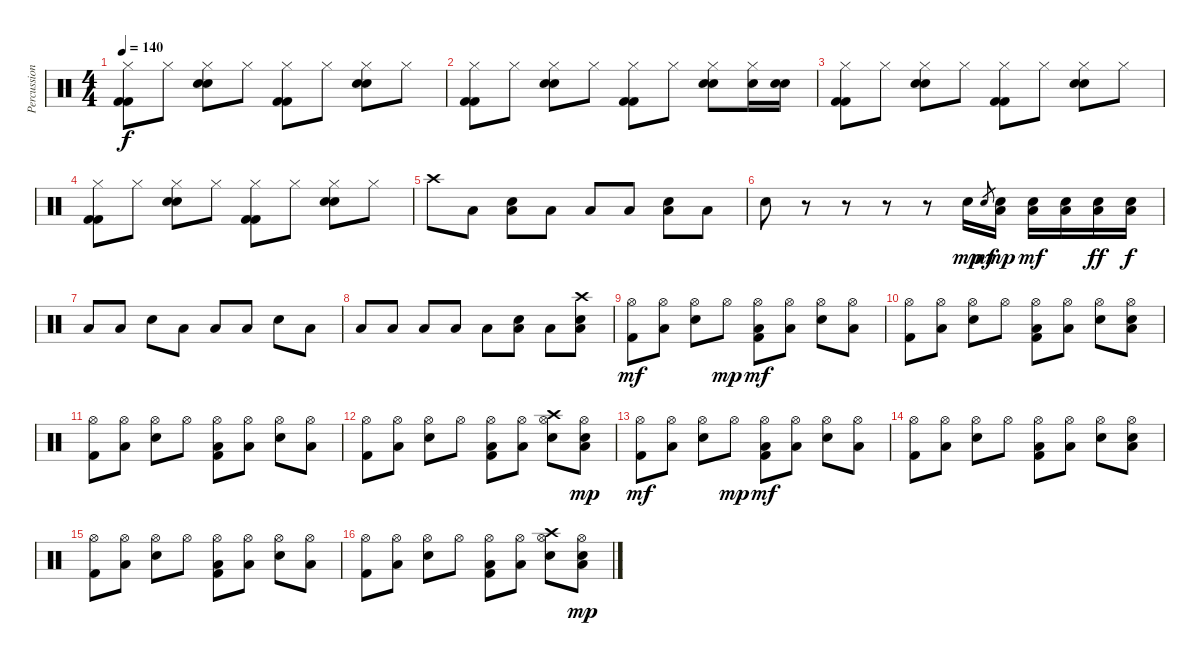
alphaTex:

\track ("Percussion" "Percussion") {instrument percussion}
\staff {score}
\articulation defaults
\ts (4 4)
\tempo 140
\clef neutral
\ks c
("Hi-Hat (closed)" "Kick (hit) 2" "Kick (hit) 2").8{dy f} "Hi-Hat (closed)".8 ("Hi-Hat (closed)" "Electric Snare (hit)" "Electric Snare (hit)").8 "Hi-Hat (closed)".8 ("Hi-Hat (closed)" "Kick (hit) 2" "Kick (hit) 2").8 "Hi-Hat (closed)".8 ("Hi-Hat (closed)" "Electric Snare (hit)" "Electric Snare (hit)").8 "Hi-Hat (closed)".8 |
("Hi-Hat (closed)" "Kick (hit) 2" "Kick (hit) 2").8 "Hi-Hat (closed)".8 ("Hi-Hat (closed)" "Electric Snare (hit)" "Electric Snare (hit)").8 "Hi-Hat (closed)".8 ("Hi-Hat (closed)" "Kick (hit) 2" "Kick (hit) 2").8 "Hi-Hat (closed)".8 ("Hi-Hat (closed)" "Electric Snare (hit)" "Electric Snare (hit)").8 ("Hi-Hat (closed)" "Electric Snare (hit)").16 ("Electric Snare (hit)" "Electric Snare (hit)").16 |
("Hi-Hat (closed)" "Kick (hit) 2" "Kick (hit) 2").8 "Hi-Hat (closed)".8 ("Hi-Hat (closed)" "Electric Snare (hit)" "Electric Snare (hit)").8 "Hi-Hat (closed)".8 ("Hi-Hat (closed)" "Kick (hit) 2" "Kick (hit) 2").8 "Hi-Hat (closed)".8 ("Hi-Hat (closed)" "Electric Snare (hit)" "Electric Snare (hit)").8 "Hi-Hat (closed)".8 |
("Hi-Hat (closed)" "Kick (hit) 2" "Kick (hit) 2").8 "Hi-Hat (closed)".8 ("Hi-Hat (closed)" "Electric Snare (hit)" "Electric Snare (hit)").8 "Hi-Hat (closed)".8 ("Hi-Hat (closed)" "Kick (hit) 2" "Kick (hit) 2").8 "Hi-Hat (closed)".8 ("Hi-Hat (closed)" "Electric Snare (hit)" "Electric Snare (hit)").8 "Hi-Hat (closed)".8 |
"Crash high (hit)".8 "Low Tom (hit)".8 ("Low Tom (hit)" "Electric Snare (hit)").8 "Low Tom (hit)".8 "Low Tom (hit)".8 "Low Tom (hit)".8 ("Low Tom (hit)" "Electric Snare (hit)").8 "Low Tom (hit)".8 |
"Electric Snare (hit)".8 r.8 r.8 r.8 r.8 "Electric Snare (hit)".16{dy mp} "Electric Snare (hit)".8{gr dy mf} ("Low Tom (hit)" "Electric Snare (hit)").16{dy mp} ("Electric Snare (hit)" "Low Tom (hit)").16{dy mf} ("Low Tom (hit)" "Electric Snare (hit)").16 ("Low Tom (hit)" "Electric Snare (hit)").16{dy ff} ("Low Tom (hit)" "Electric Snare (hit)").16{dy f} |
"Low Tom (hit)".8 "Low Tom (hit)".8 "Electric Snare (hit)".8 "Low Tom (hit)".8 "Low Tom (hit)".8 "Low Tom (hit)".8 "Electric Snare (hit)".8 "Low Tom (hit)".8 |
"Low Tom (hit)".8 "Low Tom (hit)".8 "Low Tom (hit)".8 "Low Tom (hit)".8 "Low Tom (hit)".8 ("Electric Snare (hit)" "Low Tom (hit)").8 "Low Tom (hit)".8 ("Crash high (hit)" "Electric Snare (hit)" "Low Tom (hit)").8 |
("Hi-Hat (open)" "Kick (hit) 2").8{dy mf} ("Low Tom (hit)" "Hi-Hat (open)").8 ("Hi-Hat (open)" "Electric Snare (hit)").8 "Hi-Hat (open)".8{dy mp} ("Low Tom (hit)" "Hi-Hat (open)" "Kick (hit) 2").8{dy mf} ("Low Tom (hit)" "Hi-Hat (open)").8 ("Hi-Hat (open)" "Electric Snare (hit)").8 ("Low Tom (hit)" "Hi-Hat (open)").8 |
("Hi-Hat (open)" "Kick (hit) 2").8 ("Low Tom (hit)" "Hi-Hat (open)").8 ("Hi-Hat (open)" "Electric Snare (hit)").8 "Hi-Hat (open)".8 ("Low Tom (hit)" "Hi-Hat (open)" "Kick (hit) 2").8 ("Low Tom (hit)" "Hi-Hat (open)").8 ("Hi-Hat (open)" "Electric Snare (hit)").8 ("Low Tom (hit)" "Hi-Hat (open)" "Electric Snare (hit)").8 |
("Hi-Hat (open)" "Kick (hit) 2").8 ("Low Tom (hit)" "Hi-Hat (open)").8 ("Hi-Hat (open)" "Electric Snare (hit)").8 "Hi-Hat (open)".8 ("Low Tom (hit)" "Hi-Hat (open)" "Kick (hit) 2").8 ("Low Tom (hit)" "Hi-Hat (open)").8 ("Hi-Hat (open)" "Electric Snare (hit)").8 ("Low Tom (hit)" "Hi-Hat (open)").8 |
("Hi-Hat (open)" "Kick (hit) 2").8 ("Low Tom (hit)" "Hi-Hat (open)").8 ("Hi-Hat (open)" "Electric Snare (hit)").8 "Hi-Hat (open)".8 ("Low Tom (hit)" "Hi-Hat (open)" "Kick (hit) 2").8 ("Low Tom (hit)" "Hi-Hat (open)").8 ("Crash high (hit)" "Hi-Hat (open)" "Electric Snare (hit)").8 ("Low Tom (hit)" "Hi-Hat (open)" "Electric Snare (hit)").8{dy mp} |
("Hi-Hat (open)" "Kick (hit) 2").8{dy mf} ("Low Tom (hit)" "Hi-Hat (open)").8 ("Hi-Hat (open)" "Electric Snare (hit)").8 "Hi-Hat (open)".8{dy mp} ("Low Tom (hit)" "Hi-Hat (open)" "Kick (hit) 2").8{dy mf} ("Low Tom (hit)" "Hi-Hat (open)").8 ("Hi-Hat (open)" "Electric Snare (hit)").8 ("Low Tom (hit)" "Hi-Hat (open)").8 |
("Hi-Hat (open)" "Kick (hit) 2").8 ("Low Tom (hit)" "Hi-Hat (open)").8 ("Hi-Hat (open)" "Electric Snare (hit)").8 "Hi-Hat (open)".8 ("Low Tom (hit)" "Hi-Hat (open)" "Kick (hit) 2").8 ("Low Tom (hit)" "Hi-Hat (open)").8 ("Hi-Hat (open)" "Electric Snare (hit)").8 ("Low Tom (hit)" "Hi-Hat (open)" "Electric Snare (hit)").8 |
("Hi-Hat (open)" "Kick (hit) 2").8 ("Low Tom (hit)" "Hi-Hat (open)").8 ("Hi-Hat (open)" "Electric Snare (hit)").8 "Hi-Hat (open)".8 ("Low Tom (hit)" "Hi-Hat (open)" "Kick (hit) 2").8 ("Low Tom (hit)" "Hi-Hat (open)").8 ("Hi-Hat (open)" "Electric Snare (hit)").8 ("Low Tom (hit)" "Hi-Hat (open)").8 |
("Hi-Hat (open)" "Kick (hit) 2").8 ("Low Tom (hit)" "Hi-Hat (open)").8 ("Hi-Hat (open)" "Electric Snare (hit)").8 "Hi-Hat (open)".8 ("Low Tom (hit)" "Hi-Hat (open)" "Kick (hit) 2").8 ("Low Tom (hit)" "Hi-Hat (open)").8 ("Crash high (hit)" "Hi-Hat (open)" "Electric Snare (hit)").8 ("Low Tom (hit)" "Hi-Hat (open)" "Electric Snare (hit)").8{dy mp}
